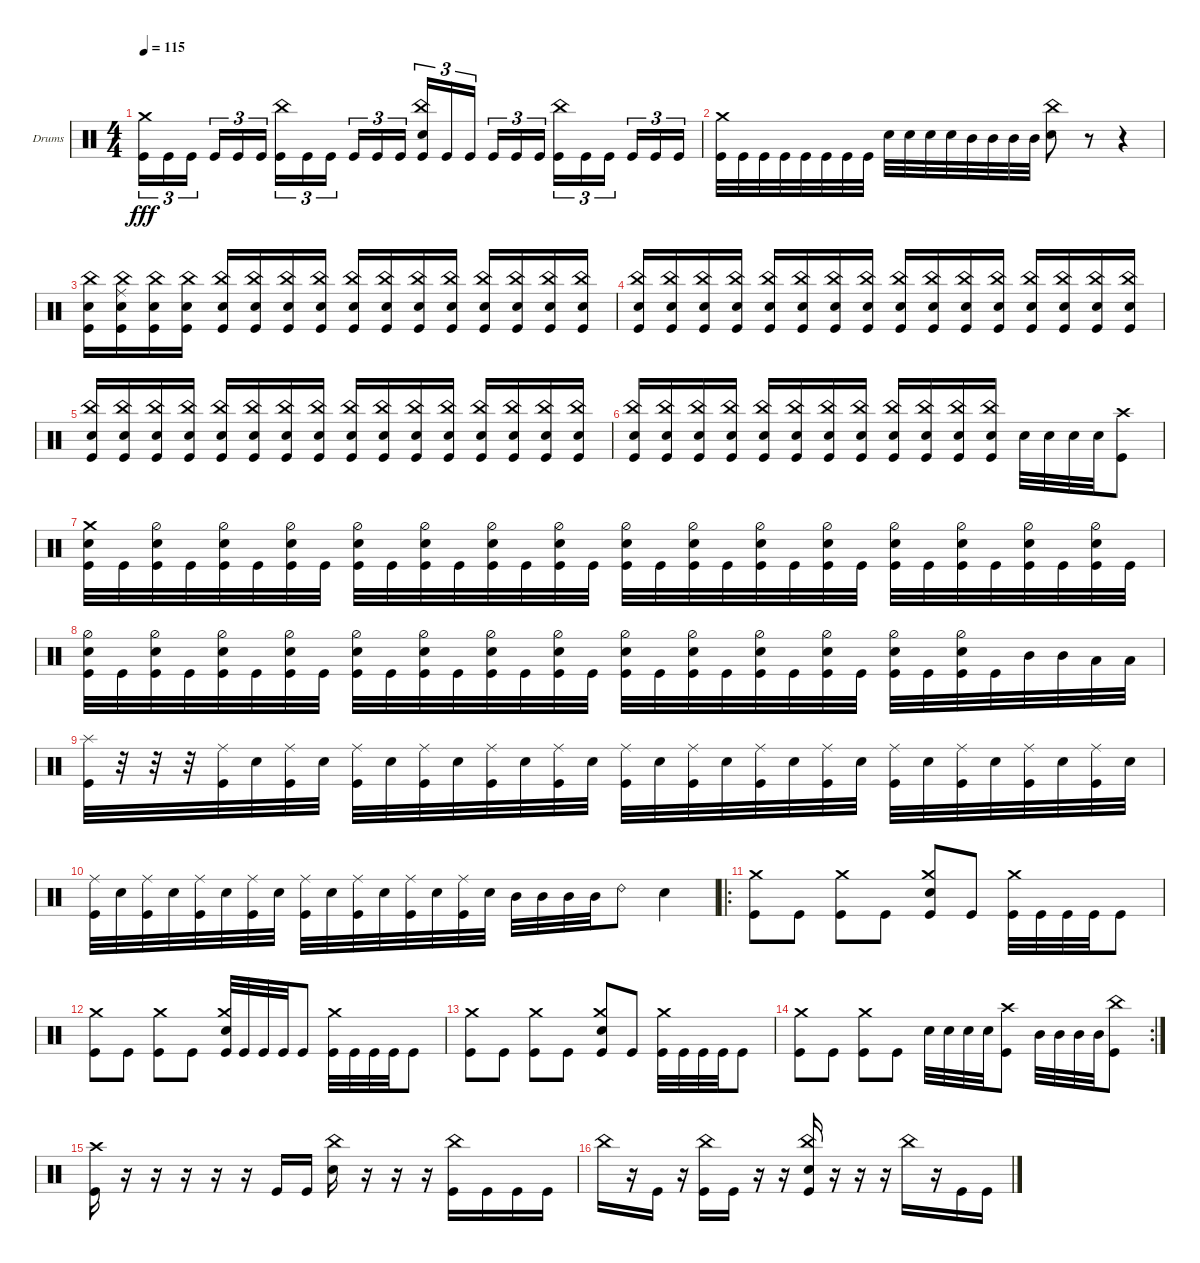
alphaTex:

\bracketExtendMode groupsimilarinstruments
\firstSystemTrackNameOrientation horizontal
\otherSystemsTrackNameOrientation horizontal
\track ("Drumkit" "Drums") {instrument percussion}
\staff {score}
\articulation defaults
\ts (4 4)
\tempo 115
\clef neutral
\ks c
("Kick (hit)" "Crash medium (hit)").16{tu (3 2) dy fff} "Kick (hit)".16{tu (3 2)} "Kick (hit)".16{tu (3 2)} "Kick (hit)".16{tu (3 2)} "Kick (hit)".16{tu (3 2)} "Kick (hit)".16{tu (3 2)} ("Kick (hit)" "China (hit)").16{tu (3 2)} "Kick (hit)".16{tu (3 2)} "Kick (hit)".16{tu (3 2)} "Kick (hit)".16{tu (3 2)} "Kick (hit)".16{tu (3 2)} "Kick (hit)".16{tu (3 2)} ("Kick (hit)" "Snare (hit) 2" "China (hit)").16{tu (3 2)} "Kick (hit)".16{tu (3 2)} "Kick (hit)".16{tu (3 2)} "Kick (hit)".16{tu (3 2)} "Kick (hit)".16{tu (3 2)} "Kick (hit)".16{tu (3 2)} ("Kick (hit)" "China (hit)").16{tu (3 2)} "Kick (hit)".16{tu (3 2)} "Kick (hit)".16{tu (3 2)} "Kick (hit)".16{tu (3 2)} "Kick (hit)".16{tu (3 2)} "Kick (hit)".16{tu (3 2)} |
("Kick (hit)" "Crash medium (hit)").32 "Kick (hit)".32 "Kick (hit)".32 "Kick (hit)".32 "Kick (hit)".32 "Kick (hit)".32 "Kick (hit)".32 "Kick (hit)".32 "Snare (hit) 2".32 "Snare (hit) 2".32 "Snare (hit) 2".32 "Snare (hit) 2".32 "Mid Tom (hit)".32 "Mid Tom (hit)".32 "Mid Tom (hit)".32 "Mid Tom (hit)".32 ("Snare (hit) 2" "China (hit)").8 r.8 r.4 |
("Snare (hit) 2" "China (hit)" "Kick (hit)").16 ("Snare (hit) 2" "China (hit)" "Kick (hit)" "Ride (middle)").16 ("Snare (hit) 2" "China (hit)" "Kick (hit)").16 ("Snare (hit) 2" "China (hit)" "Kick (hit)").16 ("Snare (hit) 2" "China (hit)" "Kick (hit)").16 ("Snare (hit) 2" "China (hit)" "Kick (hit)").16 ("Snare (hit) 2" "China (hit)" "Kick (hit)").16 ("Snare (hit) 2" "China (hit)" "Kick (hit)").16 ("Snare (hit) 2" "China (hit)" "Kick (hit)").16 ("Snare (hit) 2" "China (hit)" "Kick (hit)").16 ("Snare (hit) 2" "China (hit)" "Kick (hit)").16 ("Snare (hit) 2" "China (hit)" "Kick (hit)").16 ("Snare (hit) 2" "China (hit)" "Kick (hit)").16 ("Snare (hit) 2" "China (hit)" "Kick (hit)").16 ("Snare (hit) 2" "China (hit)" "Kick (hit)").16 ("Snare (hit) 2" "China (hit)" "Kick (hit)").16 |
("Snare (hit) 2" "China (hit)" "Kick (hit)").16 ("Snare (hit) 2" "China (hit)" "Kick (hit)").16 ("Snare (hit) 2" "China (hit)" "Kick (hit)").16 ("Snare (hit) 2" "China (hit)" "Kick (hit)").16 ("Snare (hit) 2" "China (hit)" "Kick (hit)").16 ("Snare (hit) 2" "China (hit)" "Kick (hit)").16 ("Snare (hit) 2" "China (hit)" "Kick (hit)").16 ("Snare (hit) 2" "China (hit)" "Kick (hit)").16 ("Snare (hit) 2" "China (hit)" "Kick (hit)").16 ("Snare (hit) 2" "China (hit)" "Kick (hit)").16 ("Snare (hit) 2" "China (hit)" "Kick (hit)").16 ("Snare (hit) 2" "China (hit)" "Kick (hit)").16 ("Snare (hit) 2" "China (hit)" "Kick (hit)").16 ("Snare (hit) 2" "China (hit)" "Kick (hit)").16 ("Snare (hit) 2" "China (hit)" "Kick (hit)").16 ("Snare (hit) 2" "China (hit)" "Kick (hit)").16 |
("Snare (hit) 2" "China (hit)" "Kick (hit)").16 ("Snare (hit) 2" "China (hit)" "Kick (hit)").16 ("Snare (hit) 2" "China (hit)" "Kick (hit)").16 ("Snare (hit) 2" "China (hit)" "Kick (hit)").16 ("Snare (hit) 2" "China (hit)" "Kick (hit)").16 ("Snare (hit) 2" "China (hit)" "Kick (hit)").16 ("Snare (hit) 2" "China (hit)" "Kick (hit)").16 ("Snare (hit) 2" "China (hit)" "Kick (hit)").16 ("Snare (hit) 2" "China (hit)" "Kick (hit)").16 ("Snare (hit) 2" "China (hit)" "Kick (hit)").16 ("Snare (hit) 2" "China (hit)" "Kick (hit)").16 ("Snare (hit) 2" "China (hit)" "Kick (hit)").16 ("Snare (hit) 2" "China (hit)" "Kick (hit)").16 ("Snare (hit) 2" "China (hit)" "Kick (hit)").16 ("Snare (hit) 2" "China (hit)" "Kick (hit)").16 ("Snare (hit) 2" "China (hit)" "Kick (hit)").16 |
("Snare (hit) 2" "China (hit)" "Kick (hit)").16 ("Snare (hit) 2" "China (hit)" "Kick (hit)").16 ("Snare (hit) 2" "China (hit)" "Kick (hit)").16 ("Snare (hit) 2" "China (hit)" "Kick (hit)").16 ("Snare (hit) 2" "China (hit)" "Kick (hit)").16 ("Snare (hit) 2" "China (hit)" "Kick (hit)").16 ("Snare (hit) 2" "China (hit)" "Kick (hit)").16 ("Snare (hit) 2" "China (hit)" "Kick (hit)").16 ("Snare (hit) 2" "China (hit)" "Kick (hit)").16 ("Snare (hit) 2" "China (hit)" "Kick (hit)").16 ("Snare (hit) 2" "China (hit)" "Kick (hit)").16 ("Snare (hit) 2" "China (hit)" "Kick (hit)").16 "Snare (hit) 2".32 "Snare (hit) 2".32 "Snare (hit) 2".32 "Snare (hit) 2".32 ("Kick (hit)" "Crash high (hit)").8 |
("Kick (hit)" "Snare (hit) 2" "Crash medium (hit)").32 "Kick (hit)".32 ("Kick (hit)" "Hi-Hat (half)" "Snare (hit) 2").32 "Kick (hit)".32 ("Kick (hit)" "Hi-Hat (half)" "Snare (hit) 2").32 "Kick (hit)".32 ("Kick (hit)" "Hi-Hat (half)" "Snare (hit) 2").32 "Kick (hit)".32 ("Kick (hit)" "Hi-Hat (half)" "Snare (hit) 2").32 "Kick (hit)".32 ("Kick (hit)" "Hi-Hat (half)" "Snare (hit) 2").32 "Kick (hit)".32 ("Kick (hit)" "Hi-Hat (half)" "Snare (hit) 2").32 "Kick (hit)".32 ("Kick (hit)" "Hi-Hat (half)" "Snare (hit) 2").32 "Kick (hit)".32 ("Kick (hit)" "Snare (hit) 2" "Hi-Hat (half)").32 "Kick (hit)".32 ("Kick (hit)" "Hi-Hat (half)" "Snare (hit) 2").32 "Kick (hit)".32 ("Kick (hit)" "Hi-Hat (half)" "Snare (hit) 2").32 "Kick (hit)".32 ("Kick (hit)" "Hi-Hat (half)" "Snare (hit) 2").32 "Kick (hit)".32 ("Kick (hit)" "Hi-Hat (half)" "Snare (hit) 2").32 "Kick (hit)".32 ("Kick (hit)" "Hi-Hat (half)" "Snare (hit) 2").32 "Kick (hit)".32 ("Kick (hit)" "Hi-Hat (half)" "Snare (hit) 2").32 "Kick (hit)".32 ("Kick (hit)" "Hi-Hat (half)" "Snare (hit) 2").32 "Kick (hit)".32 |
("Kick (hit)" "Hi-Hat (half)" "Snare (hit) 2").32 "Kick (hit)".32 ("Kick (hit)" "Hi-Hat (half)" "Snare (hit) 2").32 "Kick (hit)".32 ("Kick (hit)" "Hi-Hat (half)" "Snare (hit) 2").32 "Kick (hit)".32 ("Kick (hit)" "Hi-Hat (half)" "Snare (hit) 2").32 "Kick (hit)".32 ("Kick (hit)" "Hi-Hat (half)" "Snare (hit) 2").32 "Kick (hit)".32 ("Kick (hit)" "Hi-Hat (half)" "Snare (hit) 2").32 "Kick (hit)".32 ("Kick (hit)" "Hi-Hat (half)" "Snare (hit) 2").32 "Kick (hit)".32 ("Kick (hit)" "Hi-Hat (half)" "Snare (hit) 2").32 "Kick (hit)".32 ("Kick (hit)" "Snare (hit) 2" "Hi-Hat (half)").32 "Kick (hit)".32 ("Kick (hit)" "Hi-Hat (half)" "Snare (hit) 2").32 "Kick (hit)".32 ("Kick (hit)" "Hi-Hat (half)" "Snare (hit) 2").32 "Kick (hit)".32 ("Kick (hit)" "Hi-Hat (half)" "Snare (hit) 2").32 "Kick (hit)".32 ("Kick (hit)" "Hi-Hat (half)" "Snare (hit) 2").32 "Kick (hit)".32 ("Kick (hit)" "Hi-Hat (half)" "Snare (hit) 2").32 "Kick (hit)".32 "Mid Tom (hit)".32 "Mid Tom (hit)".32 "Low Tom (hit)".32 "Low Tom (hit)".32 |
("Kick (hit)" "Splash (hit)").32 r.32 r.32 r.32 ("Kick (hit)" "Ride (middle)").32 "Snare (hit) 2".32 ("Kick (hit)" "Ride (middle)").32 "Snare (hit) 2".32 ("Kick (hit)" "Ride (middle)").32 "Snare (hit) 2".32 ("Kick (hit)" "Ride (middle)").32 "Snare (hit) 2".32 ("Kick (hit)" "Ride (middle)").32 "Snare (hit) 2".32 ("Kick (hit)" "Ride (middle)").32 "Snare (hit) 2".32 ("Kick (hit)" "Ride (middle)").32 "Snare (hit) 2".32 ("Kick (hit)" "Ride (middle)").32 "Snare (hit) 2".32 ("Kick (hit)" "Ride (middle)").32 "Snare (hit) 2".32 ("Kick (hit)" "Ride (middle)").32 "Snare (hit) 2".32 ("Kick (hit)" "Ride (middle)").32 "Snare (hit) 2".32 ("Kick (hit)" "Ride (middle)").32 "Snare (hit) 2".32 ("Kick (hit)" "Ride (middle)").32 "Snare (hit) 2".32 ("Kick (hit)" "Ride (middle)").32 "Snare (hit) 2".32 |
("Kick (hit)" "Ride (middle)").32 "Snare (hit) 2".32 ("Kick (hit)" "Ride (middle)").32 "Snare (hit) 2".32 ("Kick (hit)" "Ride (middle)").32 "Snare (hit) 2".32 ("Kick (hit)" "Ride (middle)").32 "Snare (hit) 2".32 ("Kick (hit)" "Ride (middle)").32 "Snare (hit) 2".32 ("Kick (hit)" "Ride (middle)").32 "Snare (hit) 2".32 ("Kick (hit)" "Ride (middle)").32 "Snare (hit) 2".32 ("Kick (hit)" "Ride (middle)").32 "Snare (hit) 2".32 "Mid Tom (hit)".32 "Mid Tom (hit)".32 "Mid Tom (hit)".32 "Mid Tom (hit)".32 "Ride (bell) 2".8 "Snare (hit) 2".4 |
\ro
("Kick (hit)" "Crash medium (hit)").8 "Kick (hit)".8 ("Kick (hit)" "Crash medium (hit)").8 "Kick (hit)".8 ("Kick (hit)" "Crash medium (hit)" "Snare (hit) 2").8 "Kick (hit)".8 ("Kick (hit)" "Crash medium (hit)").32 "Kick (hit)".32 "Kick (hit)".32 "Kick (hit)".32 "Kick (hit)".8 |
("Kick (hit)" "Crash medium (hit)").8 "Kick (hit)".8 ("Kick (hit)" "Crash medium (hit)").8 "Kick (hit)".8 ("Kick (hit)" "Crash medium (hit)" "Snare (hit) 2").32 "Kick (hit)".32 "Kick (hit)".32 "Kick (hit)".32 "Kick (hit)".8 ("Kick (hit)" "Crash medium (hit)").32 "Kick (hit)".32 "Kick (hit)".32 "Kick (hit)".32 "Kick (hit)".8 |
("Kick (hit)" "Crash medium (hit)").8 "Kick (hit)".8 ("Kick (hit)" "Crash medium (hit)").8 "Kick (hit)".8 ("Kick (hit)" "Crash medium (hit)" "Snare (hit) 2").8 "Kick (hit)".8 ("Kick (hit)" "Crash medium (hit)").32 "Kick (hit)".32 "Kick (hit)".32 "Kick (hit)".32 "Kick (hit)".8 |
\rc 2
("Kick (hit)" "Crash medium (hit)").8 "Kick (hit)".8 ("Kick (hit)" "Crash medium (hit)").8 "Kick (hit)".8 "Snare (hit) 2".32 "Snare (hit) 2".32 "Snare (hit) 2".32 "Snare (hit) 2".32 ("Kick (hit)" "Crash high (hit)").8 "Mid Tom (hit)".32 "Mid Tom (hit)".32 "Mid Tom (hit)".32 "Mid Tom (hit)".32 ("Kick (hit)" "China (hit)").8 |
("Kick (hit)" "Crash high (hit)").16 r.16 r.16 r.16 r.16 r.16 "Kick (hit)".16 "Kick (hit)".16 ("China (hit)" "Snare (hit) 2").16 r.16 r.16 r.16 ("China (hit)" "Kick (hit)").16 "Kick (hit)".16 "Kick (hit)".16 "Kick (hit)".16 |
"China (hit)".16 r.16 "Kick (hit)".16 r.16 ("Kick (hit)" "China (hit)").16 "Kick (hit)".16 r.16 r.16 ("China (hit)" "Snare (hit) 2" "Kick (hit)").16 r.16 r.16 r.16 "China (hit)".16 r.16 "Kick (hit)".16 "Kick (hit)".16
